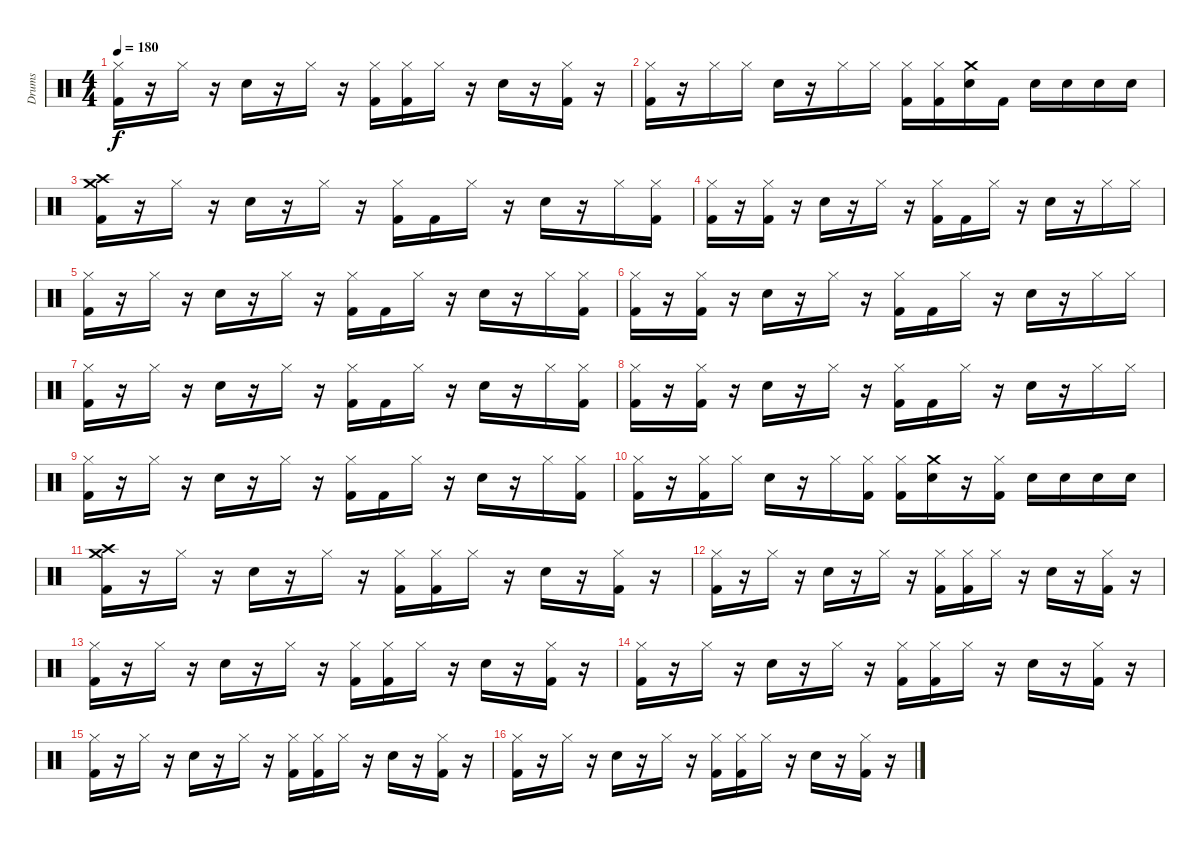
\track ("Drums" "Drums") {instrument percussion}
\staff {score}
\articulation defaults
\ts (4 4)
\tempo 180
\clef neutral
\ks c
("Hi-Hat (closed)" "Kick (hit) 2").16{dy f} r.16 "Hi-Hat (closed)".16 r.16 "Snare (hit) 2".16 r.16 "Hi-Hat (closed)".16 r.16 ("Hi-Hat (closed)" "Kick (hit) 2").16 ("Hi-Hat (closed)" "Kick (hit) 2").16 "Hi-Hat (closed)".16 r.16 "Snare (hit) 2".16 r.16 ("Hi-Hat (closed)" "Kick (hit) 2").16 r.16 |
("Hi-Hat (closed)" "Kick (hit) 2").16 r.16 "Hi-Hat (closed)".16 "Hi-Hat (closed)".16 "Snare (hit) 2".16 r.16 "Hi-Hat (closed)".16 "Hi-Hat (closed)".16 ("Hi-Hat (closed)" "Kick (hit) 2").16 ("Hi-Hat (closed)" "Kick (hit) 2").16 ("Crash medium (hit)" "Snare (hit) 2").16 "Kick (hit) 2".16 "Snare (hit) 2".16 "Snare (hit) 2".16 "Snare (hit) 2".16 "Snare (hit) 2".16 |
("Crash medium (hit)" "Crash high (hit)" "Kick (hit) 2").16 r.16 "Hi-Hat (closed)".16 r.16 "Snare (hit) 2".16 r.16 "Hi-Hat (closed)".16 r.16 ("Hi-Hat (closed)" "Kick (hit) 2").16 "Kick (hit) 2".16 "Hi-Hat (closed)".16 r.16 "Snare (hit) 2".16 r.16 "Hi-Hat (closed)".16 ("Hi-Hat (closed)" "Kick (hit) 2").16 |
("Hi-Hat (closed)" "Kick (hit) 2").16 r.16 ("Hi-Hat (closed)" "Kick (hit) 2").16 r.16 "Snare (hit) 2".16 r.16 "Hi-Hat (closed)".16 r.16 ("Hi-Hat (closed)" "Kick (hit) 2").16 "Kick (hit) 2".16 "Hi-Hat (closed)".16 r.16 "Snare (hit) 2".16 r.16 "Hi-Hat (closed)".16 "Hi-Hat (closed)".16 |
("Hi-Hat (closed)" "Kick (hit) 2").16 r.16 "Hi-Hat (closed)".16 r.16 "Snare (hit) 2".16 r.16 "Hi-Hat (closed)".16 r.16 ("Hi-Hat (closed)" "Kick (hit) 2").16 "Kick (hit) 2".16 "Hi-Hat (closed)".16 r.16 "Snare (hit) 2".16 r.16 "Hi-Hat (closed)".16 ("Hi-Hat (closed)" "Kick (hit) 2").16 |
("Hi-Hat (closed)" "Kick (hit) 2").16 r.16 ("Hi-Hat (closed)" "Kick (hit) 2").16 r.16 "Snare (hit) 2".16 r.16 "Hi-Hat (closed)".16 r.16 ("Hi-Hat (closed)" "Kick (hit) 2").16 "Kick (hit) 2".16 "Hi-Hat (closed)".16 r.16 "Snare (hit) 2".16 r.16 "Hi-Hat (closed)".16 "Hi-Hat (closed)".16 |
("Hi-Hat (closed)" "Kick (hit) 2").16 r.16 "Hi-Hat (closed)".16 r.16 "Snare (hit) 2".16 r.16 "Hi-Hat (closed)".16 r.16 ("Hi-Hat (closed)" "Kick (hit) 2").16 "Kick (hit) 2".16 "Hi-Hat (closed)".16 r.16 "Snare (hit) 2".16 r.16 "Hi-Hat (closed)".16 ("Hi-Hat (closed)" "Kick (hit) 2").16 |
("Hi-Hat (closed)" "Kick (hit) 2").16 r.16 ("Hi-Hat (closed)" "Kick (hit) 2").16 r.16 "Snare (hit) 2".16 r.16 "Hi-Hat (closed)".16 r.16 ("Hi-Hat (closed)" "Kick (hit) 2").16 "Kick (hit) 2".16 "Hi-Hat (closed)".16 r.16 "Snare (hit) 2".16 r.16 "Hi-Hat (closed)".16 "Hi-Hat (closed)".16 |
("Hi-Hat (closed)" "Kick (hit) 2").16 r.16 "Hi-Hat (closed)".16 r.16 "Snare (hit) 2".16 r.16 "Hi-Hat (closed)".16 r.16 ("Hi-Hat (closed)" "Kick (hit) 2").16 "Kick (hit) 2".16 "Hi-Hat (closed)".16 r.16 "Snare (hit) 2".16 r.16 "Hi-Hat (closed)".16 ("Hi-Hat (closed)" "Kick (hit) 2").16 |
("Hi-Hat (closed)" "Kick (hit) 2").16 r.16 ("Hi-Hat (closed)" "Kick (hit) 2").16 "Hi-Hat (closed)".16 "Snare (hit) 2".16 r.16 "Hi-Hat (closed)".16 ("Hi-Hat (closed)" "Kick (hit) 2").16 ("Hi-Hat (closed)" "Kick (hit) 2").16 ("Crash medium (hit)" "Snare (hit) 2").16 r.16 ("Hi-Hat (closed)" "Kick (hit) 2").16 "Snare (hit) 2".16 "Snare (hit) 2".16 "Snare (hit) 2".16 "Snare (hit) 2".16 |
("Crash medium (hit)" "Crash high (hit)" "Kick (hit) 2").16 r.16 "Hi-Hat (closed)".16 r.16 "Snare (hit) 2".16 r.16 "Hi-Hat (closed)".16 r.16 ("Hi-Hat (closed)" "Kick (hit) 2").16 ("Hi-Hat (closed)" "Kick (hit) 2").16 "Hi-Hat (closed)".16 r.16 "Snare (hit) 2".16 r.16 ("Hi-Hat (closed)" "Kick (hit) 2").16 r.16 |
("Hi-Hat (closed)" "Kick (hit) 2").16 r.16 "Hi-Hat (closed)".16 r.16 "Snare (hit) 2".16 r.16 "Hi-Hat (closed)".16 r.16 ("Hi-Hat (closed)" "Kick (hit) 2").16 ("Hi-Hat (closed)" "Kick (hit) 2").16 "Hi-Hat (closed)".16 r.16 "Snare (hit) 2".16 r.16 ("Hi-Hat (closed)" "Kick (hit) 2").16 r.16 |
("Hi-Hat (closed)" "Kick (hit) 2").16 r.16 "Hi-Hat (closed)".16 r.16 "Snare (hit) 2".16 r.16 "Hi-Hat (closed)".16 r.16 ("Hi-Hat (closed)" "Kick (hit) 2").16 ("Hi-Hat (closed)" "Kick (hit) 2").16 "Hi-Hat (closed)".16 r.16 "Snare (hit) 2".16 r.16 ("Hi-Hat (closed)" "Kick (hit) 2").16 r.16 |
("Hi-Hat (closed)" "Kick (hit) 2").16 r.16 "Hi-Hat (closed)".16 r.16 "Snare (hit) 2".16 r.16 "Hi-Hat (closed)".16 r.16 ("Hi-Hat (closed)" "Kick (hit) 2").16 ("Hi-Hat (closed)" "Kick (hit) 2").16 "Hi-Hat (closed)".16 r.16 "Snare (hit) 2".16 r.16 ("Hi-Hat (closed)" "Kick (hit) 2").16 r.16 |
("Hi-Hat (closed)" "Kick (hit) 2").16 r.16 "Hi-Hat (closed)".16 r.16 "Snare (hit) 2".16 r.16 "Hi-Hat (closed)".16 r.16 ("Hi-Hat (closed)" "Kick (hit) 2").16 ("Hi-Hat (closed)" "Kick (hit) 2").16 "Hi-Hat (closed)".16 r.16 "Snare (hit) 2".16 r.16 ("Hi-Hat (closed)" "Kick (hit) 2").16 r.16 |
("Hi-Hat (closed)" "Kick (hit) 2").16 r.16 "Hi-Hat (closed)".16 r.16 "Snare (hit) 2".16 r.16 "Hi-Hat (closed)".16 r.16 ("Hi-Hat (closed)" "Kick (hit) 2").16 ("Hi-Hat (closed)" "Kick (hit) 2").16 "Hi-Hat (closed)".16 r.16 "Snare (hit) 2".16 r.16 ("Hi-Hat (closed)" "Kick (hit) 2").16 r.16
